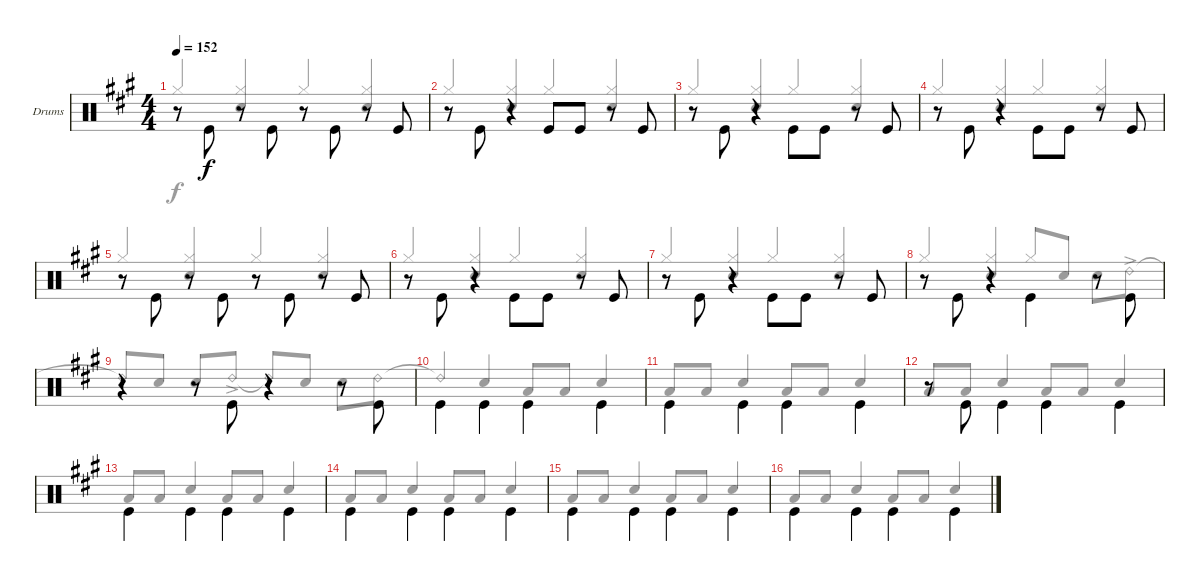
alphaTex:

\defaultSystemsLayout 4
\bracketExtendMode groupsimilarinstruments
\firstSystemTrackNameOrientation horizontal
\otherSystemsTrackNameOrientation horizontal
\track ("Drumkit" "Drums") {instrument percussion}
\staff {score}
\articulation defaults
\voice
\ts (4 4)
\tempo 152
\clef neutral
\scale
1.05801
\ks a
r.8{dy f} "Kick (hit)".8{beam invert} r.8 "Kick (hit)".8 r.8{beam invert} "Kick (hit)".8{beam invert} r.8 "Kick (hit)".8 |
\scale
0.941992 r.8 "Kick (hit)".8{beam invert} r.4 "Kick (hit)".8 "Kick (hit)".8 r.8 "Kick (hit)".8 |
\scale
1.05801 r.8 "Kick (hit)".8{beam invert} r.4 "Kick (hit)".8{beam invert} "Kick (hit)".8 r.8 "Kick (hit)".8 |
\scale
0.941992 r.8 "Kick (hit)".8{beam invert} r.4 "Kick (hit)".8{beam invert} "Kick (hit)".8 r.8 "Kick (hit)".8 |
\scale
1.05801 r.8 "Kick (hit)".8{beam invert} r.8 "Kick (hit)".8 r.8{beam invert} "Kick (hit)".8{beam invert} r.8 "Kick (hit)".8 |
\scale
0.941992 r.8 "Kick (hit)".8{beam invert} r.4 "Kick (hit)".8{beam invert} "Kick (hit)".8 r.8 "Kick (hit)".8 |
\scale
1.05801 r.8 "Kick (hit)".8{beam invert} r.4 "Kick (hit)".8{beam invert} "Kick (hit)".8 r.8 "Kick (hit)".8 |
\scale
0.941992 r.8 "Kick (hit)".8{beam invert} r.4 "Kick (hit)".4{beam invert} r.8 "Kick (hit)".8{beam invert} |
\scale
1.05801 r.4 r.8{beam invert} "Kick (hit)".8{beam invert} r.4{beam invert} r.8 "Kick (hit)".8{beam invert} |
\scale
0.941992 "Kick (hit)".4{beam invert} "Kick (hit)".4{beam invert} "Kick (hit)".4{beam invert} "Kick (hit)".4{beam invert} |
\scale
1.05801 "Kick (hit)".4{beam invert} "Kick (hit)".4{beam invert} "Kick (hit)".4{beam invert} "Kick (hit)".4{beam invert} |
\scale
0.941992 r.8{beam invert} "Kick (hit)".8{beam invert} "Kick (hit)".4{beam invert} "Kick (hit)".4{beam invert} "Kick (hit)".4{beam invert} |
\scale
1.05801 "Kick (hit)".4{beam invert} "Kick (hit)".4{beam invert} "Kick (hit)".4{beam invert} "Kick (hit)".4{beam invert} |
\scale
0.941992 "Kick (hit)".4{beam invert} "Kick (hit)".4{beam invert} "Kick (hit)".4{beam invert} "Kick (hit)".4{beam invert} |
\scale
1.05801 "Kick (hit)".4{beam invert} "Kick (hit)".4{beam invert} "Kick (hit)".4{beam invert} "Kick (hit)".4{beam invert} |
\scale
0.941992 "Kick (hit)".4{beam invert} "Kick (hit)".4{beam invert} "Kick (hit)".4{beam invert} "Kick (hit)".4{beam invert}
\voice
\clef neutral
\ottava regular
\simile none
\scale
1.05801
\ks a "Hi-Hat (closed)".4{dy f beam invert}
("Hi-Hat (closed)" "Snare (hit) 2").4{beam invert} "Hi-Hat (closed)".4{beam invert} ("Hi-Hat (closed)" "Snare (hit) 2").4{beam invert} |
\scale
0.941992 "Hi-Hat (closed)".4{beam invert} ("Hi-Hat (closed)" "Snare (hit) 2").4{beam invert} "Hi-Hat (closed)".4{beam invert} ("Hi-Hat (closed)" "Snare (hit) 2").4{beam invert} |
\scale
1.05801 "Hi-Hat (closed)".4{beam invert} ("Hi-Hat (closed)" "Snare (hit) 2").4{beam invert} "Hi-Hat (closed)".4{beam invert} ("Hi-Hat (closed)" "Snare (hit) 2").4{beam invert} |
\scale
0.941992 "Hi-Hat (closed)".4{beam invert} ("Hi-Hat (closed)" "Snare (hit) 2").4{beam invert} "Hi-Hat (closed)".4{beam invert} ("Hi-Hat (closed)" "Snare (hit) 2").4{beam invert} |
\scale
1.05801 "Hi-Hat (closed)".4{beam invert} ("Hi-Hat (closed)" "Snare (hit) 2").4{beam invert} "Hi-Hat (closed)".4{beam invert} ("Hi-Hat (closed)" "Snare (hit) 2").4{beam invert} |
\scale
0.941992 "Hi-Hat (closed)".4{beam invert} ("Hi-Hat (closed)" "Snare (hit) 2").4{beam invert} "Hi-Hat (closed)".4{beam invert} ("Hi-Hat (closed)" "Snare (hit) 2").4{beam invert} |
\scale
1.05801 "Hi-Hat (closed)".4{beam invert} ("Hi-Hat (closed)" "Snare (hit) 2").4{beam invert} "Hi-Hat (closed)".4{beam invert} ("Hi-Hat (closed)" "Snare (hit) 2").4{beam invert} |
\scale
0.941992 "Hi-Hat (closed)".4{beam invert} ("Hi-Hat (closed)" "Snare (hit) 2").4{beam invert} "Hi-Hat (closed)".8{beam invert} "Snare (hit) 2".8 "Snare (hit) 2".8 "Ride (bell) 2"{ac}.8 |
\scale
1.05801 "Ride (bell) 2"{t}.8{beam invert} "Snare (hit) 2".8 "Snare (hit) 2".8 "Ride (bell) 2"{ac}.8 "Ride (bell) 2"{t}.8{beam invert} "Snare (hit) 2".8 "Snare (hit) 2".8 "Ride (bell) 2".8 |
\scale
0.941992 "Ride (bell) 2"{t}.4{beam invert} "Snare (hit) 2".4{beam invert} "Low Tom (hit)".8{beam invert} "Low Tom (hit)".8 "Snare (hit) 2".4{beam invert} |
\scale
1.05801 "Low Tom (hit)".8{beam invert} "Low Tom (hit)".8 "Snare (hit) 2".4{beam invert} "Low Tom (hit)".8{beam invert} "Low Tom (hit)".8 "Snare (hit) 2".4{beam invert} |
\scale
0.941992 "Low Tom (hit)".8{beam invert} "Low Tom (hit)".8 "Snare (hit) 2".4{beam invert} "Low Tom (hit)".8{beam invert} "Low Tom (hit)".8 "Snare (hit) 2".4{beam invert} |
\scale
1.05801 "Low Tom (hit)".8{beam invert} "Low Tom (hit)".8 "Snare (hit) 2".4{beam invert} "Low Tom (hit)".8{beam invert} "Low Tom (hit)".8 "Snare (hit) 2".4{beam invert} |
\scale
0.941992 "Low Tom (hit)".8{beam invert} "Low Tom (hit)".8 "Snare (hit) 2".4{beam invert} "Low Tom (hit)".8{beam invert} "Low Tom (hit)".8 "Snare (hit) 2".4{beam invert} |
\scale
1.05801 "Low Tom (hit)".8{beam invert} "Low Tom (hit)".8 "Snare (hit) 2".4{beam invert} "Low Tom (hit)".8{beam invert} "Low Tom (hit)".8 "Snare (hit) 2".4{beam invert} |
\scale
0.941992 "Low Tom (hit)".8{beam invert} "Low Tom (hit)".8 "Snare (hit) 2".4{beam invert} "Low Tom (hit)".8{beam invert} "Low Tom (hit)".8 "Snare (hit) 2".4{beam invert}
